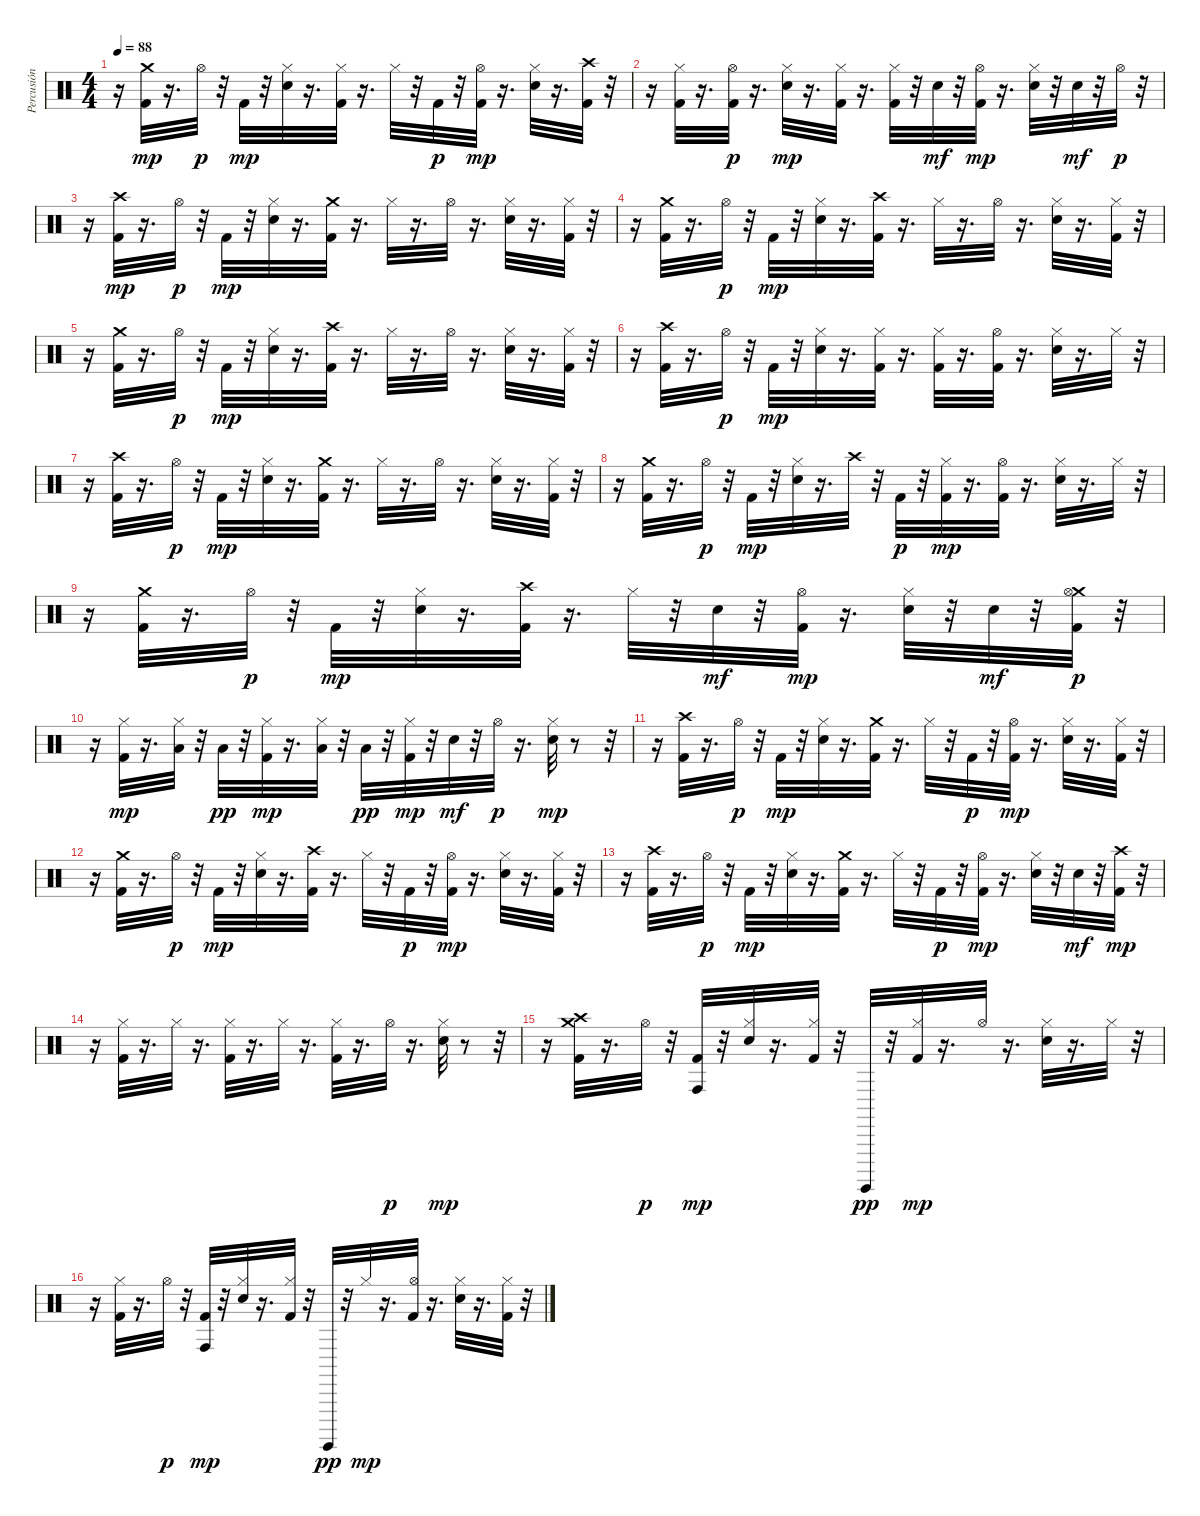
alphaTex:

\track ("Percusión" "Percusión") {instrument percussion}
\staff {score}
\articulation defaults
\ts (4 4)
\tempo 88
\clef neutral
\ks c
r.16{dy mp} ("Kick (hit) 2" "Crash medium (hit)").32 r.16{d} "Hi-Hat (open)".32{dy p} r.32 "Kick (hit) 2".32{dy mp} r.32 ("Electric Snare (hit)" "Hi-Hat (closed)").32 r.16{d} ("Kick (hit) 2" "Hi-Hat (closed)").32 r.16{d} "Hi-Hat (closed)".32 r.32 "Kick (hit) 2".32{dy p} r.32 ("Kick (hit) 2" "Hi-Hat (open)").32{dy mp} r.16{d} ("Electric Snare (hit)" "Hi-Hat (closed)").32 r.16{d} ("Kick (hit) 2" "Crash high (hit)").32 r.32 |
r.16 ("Kick (hit) 2" "Hi-Hat (closed)").32 r.16{d} ("Kick (hit) 2" "Hi-Hat (open)").32{dy p} r.16{d} ("Electric Snare (hit)" "Hi-Hat (closed)").32{dy mp} r.16{d} ("Kick (hit) 2" "Hi-Hat (closed)").32 r.16{d} ("Kick (hit) 2" "Hi-Hat (closed)").32 r.32 "Electric Snare (hit)".32{dy mf} r.32 ("Kick (hit) 2" "Hi-Hat (open)").32{dy mp} r.16{d} ("Electric Snare (hit)" "Hi-Hat (closed)").32 r.32 "Electric Snare (hit)".32{dy mf} r.32 "Hi-Hat (open)".32{dy p} r.32 |
r.16 ("Kick (hit) 2" "Crash high (hit)").32{dy mp} r.16{d} "Hi-Hat (open)".32{dy p} r.32 "Kick (hit) 2".32{dy mp} r.32 ("Electric Snare (hit)" "Hi-Hat (closed)").32 r.16{d} ("Kick (hit) 2" "Crash medium (hit)").32 r.16{d} "Hi-Hat (closed)".32 r.16{d} "Hi-Hat (open)".32 r.16{d} ("Electric Snare (hit)" "Hi-Hat (closed)").32 r.16{d} ("Kick (hit) 2" "Hi-Hat (closed)").32 r.32 |
r.16 ("Kick (hit) 2" "Crash medium (hit)").32 r.16{d} "Hi-Hat (open)".32{dy p} r.32 "Kick (hit) 2".32{dy mp} r.32 ("Electric Snare (hit)" "Hi-Hat (closed)").32 r.16{d} ("Kick (hit) 2" "Crash high (hit)").32 r.16{d} "Hi-Hat (closed)".32 r.16{d} "Hi-Hat (open)".32 r.16{d} ("Electric Snare (hit)" "Hi-Hat (closed)").32 r.16{d} ("Kick (hit) 2" "Hi-Hat (closed)").32 r.32 |
r.16 ("Kick (hit) 2" "Crash medium (hit)").32 r.16{d} "Hi-Hat (open)".32{dy p} r.32 "Kick (hit) 2".32{dy mp} r.32 ("Electric Snare (hit)" "Hi-Hat (closed)").32 r.16{d} ("Kick (hit) 2" "Crash high (hit)").32 r.16{d} "Hi-Hat (closed)".32 r.16{d} "Hi-Hat (open)".32 r.16{d} ("Electric Snare (hit)" "Hi-Hat (closed)").32 r.16{d} ("Kick (hit) 2" "Hi-Hat (closed)").32 r.32 |
r.16 ("Kick (hit) 2" "Crash high (hit)").32 r.16{d} "Hi-Hat (open)".32{dy p} r.32 "Kick (hit) 2".32{dy mp} r.32 ("Electric Snare (hit)" "Hi-Hat (closed)").32 r.16{d} ("Kick (hit) 2" "Hi-Hat (closed)").32 r.16{d} ("Kick (hit) 2" "Hi-Hat (closed)").32 r.16{d} ("Kick (hit) 2" "Hi-Hat (open)").32 r.16{d} ("Electric Snare (hit)" "Hi-Hat (closed)").32 r.16{d} "Hi-Hat (closed)".32 r.32 |
r.16 ("Kick (hit) 2" "Crash high (hit)").32 r.16{d} "Hi-Hat (open)".32{dy p} r.32 "Kick (hit) 2".32{dy mp} r.32 ("Electric Snare (hit)" "Hi-Hat (closed)").32 r.16{d} ("Kick (hit) 2" "Crash medium (hit)").32 r.16{d} "Hi-Hat (closed)".32 r.16{d} "Hi-Hat (open)".32 r.16{d} ("Electric Snare (hit)" "Hi-Hat (closed)").32 r.16{d} ("Kick (hit) 2" "Hi-Hat (closed)").32 r.32 |
r.16 ("Kick (hit) 2" "Crash medium (hit)").32 r.16{d} "Hi-Hat (open)".32{dy p} r.32 "Kick (hit) 2".32{dy mp} r.32 ("Electric Snare (hit)" "Hi-Hat (closed)").32 r.16{d} "Crash high (hit)".32 r.32 "Kick (hit) 2".32{dy p} r.32 ("Kick (hit) 2" "Hi-Hat (closed)").32{dy mp} r.16{d} ("Kick (hit) 2" "Hi-Hat (open)").32 r.16{d} ("Electric Snare (hit)" "Hi-Hat (closed)").32 r.16{d} "Hi-Hat (closed)".32 r.32 |
r.16 ("Kick (hit) 2" "Crash medium (hit)").32 r.16{d} "Hi-Hat (open)".32{dy p} r.32 "Kick (hit) 2".32{dy mp} r.32 ("Electric Snare (hit)" "Hi-Hat (closed)").32 r.16{d} ("Kick (hit) 2" "Crash high (hit)").32 r.16{d} "Hi-Hat (closed)".32 r.32 "Electric Snare (hit)".32{dy mf} r.32 ("Kick (hit) 2" "Hi-Hat (open)").32{dy mp} r.16{d} ("Electric Snare (hit)" "Hi-Hat (closed)").32 r.32 "Electric Snare (hit)".32{dy mf} r.32 ("Kick (hit) 2" "Crash medium (hit)" "Hi-Hat (open)").32{dy p} r.32 |
r.16 ("Kick (hit) 2" "Hi-Hat (closed)").32{dy mp} r.16{d} ("Low Tom (hit)" "Hi-Hat (closed)").32 r.32 "Low Tom (hit)".32{dy pp} r.32 ("Kick (hit) 2" "Hi-Hat (closed)").32{dy mp} r.16{d} ("Low Tom (hit)" "Hi-Hat (closed)").32 r.32 "Low Tom (hit)".32{dy pp} r.32 ("Kick (hit) 2" "Hi-Hat (closed)").32{dy mp} r.32 "Electric Snare (hit)".32{dy mf} r.32 "Hi-Hat (open)".32{dy p} r.16{d} ("Electric Snare (hit)" "Hi-Hat (closed)").32{dy mp} r.8 r.32 |
r.16 ("Kick (hit) 2" "Crash high (hit)").32 r.16{d} "Hi-Hat (open)".32{dy p} r.32 "Kick (hit) 2".32{dy mp} r.32 ("Electric Snare (hit)" "Hi-Hat (closed)").32 r.16{d} ("Kick (hit) 2" "Crash medium (hit)").32 r.16{d} "Hi-Hat (closed)".32 r.32 "Kick (hit) 2".32{dy p} r.32 ("Kick (hit) 2" "Hi-Hat (open)").32{dy mp} r.16{d} ("Electric Snare (hit)" "Hi-Hat (closed)").32 r.16{d} ("Kick (hit) 2" "Hi-Hat (closed)").32 r.32 |
r.16 ("Kick (hit) 2" "Crash medium (hit)").32 r.16{d} "Hi-Hat (open)".32{dy p} r.32 "Kick (hit) 2".32{dy mp} r.32 ("Electric Snare (hit)" "Hi-Hat (closed)").32 r.16{d} ("Kick (hit) 2" "Crash high (hit)").32 r.16{d} "Hi-Hat (closed)".32 r.32 "Kick (hit) 2".32{dy p} r.32 ("Kick (hit) 2" "Hi-Hat (open)").32{dy mp} r.16{d} ("Electric Snare (hit)" "Hi-Hat (closed)").32 r.16{d} ("Kick (hit) 2" "Hi-Hat (closed)").32 r.32 |
r.16 ("Kick (hit) 2" "Crash high (hit)").32 r.16{d} "Hi-Hat (open)".32{dy p} r.32 "Kick (hit) 2".32{dy mp} r.32 ("Electric Snare (hit)" "Hi-Hat (closed)").32 r.16{d} ("Kick (hit) 2" "Crash medium (hit)").32 r.16{d} "Hi-Hat (closed)".32 r.32 "Kick (hit) 2".32{dy p} r.32 ("Kick (hit) 2" "Hi-Hat (open)").32{dy mp} r.16{d} ("Electric Snare (hit)" "Hi-Hat (closed)").32 r.32 "Electric Snare (hit)".32{dy mf} r.32 ("Kick (hit) 2" "Crash high (hit)").32{dy mp} r.32 |
r.16 ("Kick (hit) 2" "Hi-Hat (closed)").32 r.16{d} "Hi-Hat (closed)".32 r.16{d} ("Kick (hit) 2" "Hi-Hat (closed)").32 r.16{d} "Hi-Hat (closed)".32 r.16{d} ("Kick (hit) 2" "Hi-Hat (closed)").32 r.16{d} "Hi-Hat (open)".32{dy p} r.16{d} ("Electric Snare (hit)" "Hi-Hat (closed)").32{dy mp} r.8 r.32 |
r.16 ("Kick (hit) 2" "Crash medium (hit)" "Crash high (hit)").32 r.16{d} "Hi-Hat (open)".32{dy p} r.32 ("Kick (hit) 2" "Conga high (hit)").32{dy mp} r.32 ("Electric Snare (hit)" "Hi-Hat (closed)").32 r.16{d} ("Kick (hit) 2" "Hi-Hat (closed)").32 r.32 "Surdo (hit)".32{dy pp} r.32 ("Kick (hit) 2" "Hi-Hat (closed)").32{dy mp} r.16{d} "Hi-Hat (open)".32 r.16{d} ("Electric Snare (hit)" "Hi-Hat (closed)").32 r.16{d} "Hi-Hat (closed)".32 r.32 |
r.16 ("Kick (hit) 2" "Hi-Hat (closed)").32 r.16{d} "Hi-Hat (open)".32{dy p} r.32 ("Kick (hit) 2" "Conga high (hit)").32{dy mp} r.32 ("Electric Snare (hit)" "Hi-Hat (closed)").32 r.16{d} ("Kick (hit) 2" "Hi-Hat (closed)").32 r.32 "Surdo (hit)".32{dy pp} r.32 "Hi-Hat (closed)".32{dy mp} r.16{d} ("Kick (hit) 2" "Hi-Hat (open)").32 r.16{d} ("Electric Snare (hit)" "Hi-Hat (closed)").32 r.16{d} ("Kick (hit) 2" "Hi-Hat (closed)").32 r.32
